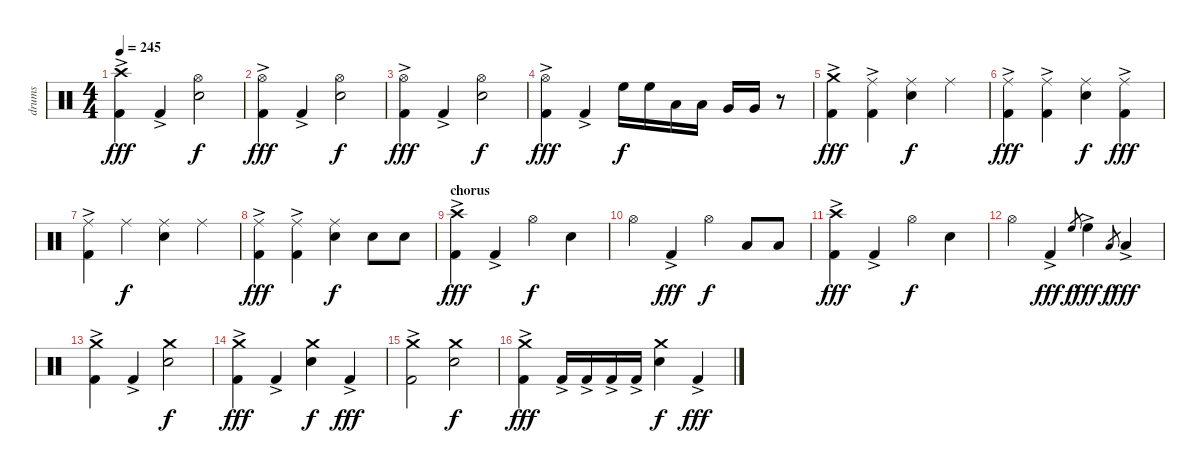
\track ("drums" "drums") {instrument percussion}
\staff {score}
\articulation defaults
\ts (4 4)
\tempo 245
\clef neutral
\ks c
("Crash high (hit)" "Kick (hit) 2"{ac}).4{dy fff} "Kick (hit) 2"{ac}.4 ("Hi-Hat (open)" "Electric Snare (hit)").2{dy f} |
("Hi-Hat (open)" "Kick (hit) 2"{ac}).4{dy fff} "Kick (hit) 2"{ac}.4 ("Hi-Hat (open)" "Electric Snare (hit)").2{dy f} |
("Hi-Hat (open)" "Kick (hit) 2"{ac}).4{dy fff} "Kick (hit) 2"{ac}.4 ("Hi-Hat (open)" "Electric Snare (hit)").2{dy f} |
("Hi-Hat (open)" "Kick (hit) 2"{ac}).4{dy fff} "Kick (hit) 2"{ac}.4 "High Floor Tom (hit)".16{dy f} "High Floor Tom (hit)".16 "Low Tom (hit)".16 "Low Tom (hit)".16 "Very Low Tom (hit)".16 "Very Low Tom (hit)".16 r.8 |
("Crash medium (hit)" "Kick (hit) 2"{ac}).4{dy fff} ("Ride (middle)" "Kick (hit) 2"{ac}).4 ("Ride (middle)" "Electric Snare (hit)").4{dy f} "Ride (middle)".4 |
("Ride (middle)" "Kick (hit) 2"{ac}).4{dy fff} ("Ride (middle)" "Kick (hit) 2"{ac}).4 ("Ride (middle)" "Electric Snare (hit)").4{dy f} ("Ride (middle)" "Kick (hit) 2"{ac}).4{dy fff} |
("Ride (middle)" "Kick (hit) 2"{ac}).4 "Ride (middle)".4{dy f} ("Ride (middle)" "Electric Snare (hit)").4 "Ride (middle)".4 |
("Ride (middle)" "Kick (hit) 2"{ac}).4{dy fff} ("Ride (middle)" "Kick (hit) 2"{ac}).4 ("Ride (middle)" "Electric Snare (hit)").4{dy f} "Electric Snare (hit)".8 "Electric Snare (hit)".8 |
\section ("" "chorus")
("Crash high (hit)" "Kick (hit) 2"{ac}).4{dy fff} "Kick (hit) 2"{ac}.4 "Hi-Hat (open)".4{dy f} "Electric Snare (hit)".4 |
"Hi-Hat (open)".4 "Kick (hit) 2"{ac}.4{dy fff} "Hi-Hat (open)".4{dy f} "Low Tom (hit)".8 "Low Tom (hit)".8 |
("Crash high (hit)" "Kick (hit) 2"{ac}).4{dy fff} "Kick (hit) 2"{ac}.4 "Hi-Hat (open)".4{dy f} "Electric Snare (hit)".4 |
"Hi-Hat (open)".4 "Kick (hit) 2"{ac}.4{dy fff} "High Floor Tom (hit)".8{gr dy f} "High Floor Tom (hit)"{ac}.4{dy fff} "Low Tom (hit)".8{gr dy f} "Low Tom (hit)"{ac}.4{dy fff} |
("Crash medium (hit)" "Kick (hit) 2"{ac}).4 "Kick (hit) 2"{ac}.4 ("Crash medium (hit)" "Electric Snare (hit)").2{dy f} |
("Crash medium (hit)" "Kick (hit) 2"{ac}).4{dy fff} "Kick (hit) 2"{ac}.4 ("Crash medium (hit)" "Electric Snare (hit)").4{dy f} "Kick (hit) 2"{ac}.4{dy fff} |
("Crash medium (hit)" "Kick (hit) 2"{ac}).2 ("Crash medium (hit)" "Electric Snare (hit)").2{dy f} |
("Crash medium (hit)" "Kick (hit) 2"{ac}).4{dy fff} "Kick (hit) 2"{ac}.16 "Kick (hit) 2"{ac}.16 "Kick (hit) 2"{ac}.16 "Kick (hit) 2"{ac}.16 ("Crash medium (hit)" "Electric Snare (hit)").4{dy f} "Kick (hit) 2"{ac}.4{dy fff}
